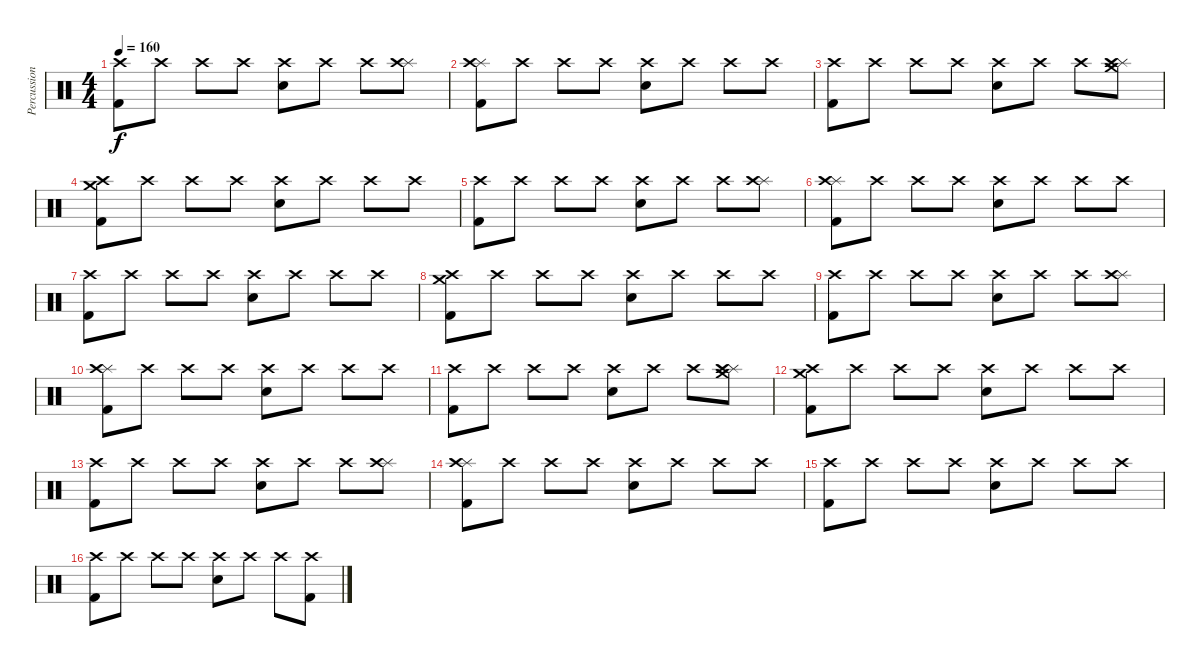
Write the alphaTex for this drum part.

\track ("Percussion" "Percussion") {instrument percussion}
\staff {score}
\articulation defaults
\ts (4 4)
\tempo 160
\clef neutral
\ks c
("Kick (hit) 2" "Crash high (hit)").8{dy f} "Crash high (hit)".8 "Crash high (hit)".8 "Crash high (hit)".8 ("Electric Snare (hit)" "Crash high (hit)").8 "Crash high (hit)".8 "Crash high (hit)".8 ("Splash (hit)" "Crash high (hit)").8 |
("Splash (hit)" "Kick (hit) 2" "Crash high (hit)").8 "Crash high (hit)".8 "Crash high (hit)".8 "Crash high (hit)".8 ("Electric Snare (hit)" "Crash high (hit)").8 "Crash high (hit)".8 "Crash high (hit)".8 "Crash high (hit)".8 |
("Kick (hit) 2" "Crash high (hit)").8 "Crash high (hit)".8 "Crash high (hit)".8 "Crash high (hit)".8 ("Electric Snare (hit)" "Crash high (hit)").8 "Crash high (hit)".8 "Crash high (hit)".8 ("Crash medium (hit)" "Splash (hit)" "Crash high (hit)").8 |
("Crash medium (hit)" "Kick (hit) 2" "Crash high (hit)").8 "Crash high (hit)".8 "Crash high (hit)".8 "Crash high (hit)".8 ("Electric Snare (hit)" "Crash high (hit)").8 "Crash high (hit)".8 "Crash high (hit)".8 "Crash high (hit)".8 |
("Kick (hit) 2" "Crash high (hit)").8 "Crash high (hit)".8 "Crash high (hit)".8 "Crash high (hit)".8 ("Electric Snare (hit)" "Crash high (hit)").8 "Crash high (hit)".8 "Crash high (hit)".8 ("Splash (hit)" "Crash high (hit)").8 |
("Splash (hit)" "Kick (hit) 2" "Crash high (hit)").8 "Crash high (hit)".8 "Crash high (hit)".8 "Crash high (hit)".8 ("Electric Snare (hit)" "Crash high (hit)").8 "Crash high (hit)".8 "Crash high (hit)".8 "Crash high (hit)".8 |
("Kick (hit) 2" "Crash high (hit)").8 "Crash high (hit)".8 "Crash high (hit)".8 "Crash high (hit)".8 ("Electric Snare (hit)" "Crash high (hit)").8 "Crash high (hit)".8 "Crash high (hit)".8 "Crash high (hit)".8 |
("Crash medium (hit)" "Kick (hit) 2" "Crash high (hit)").8 "Crash high (hit)".8 "Crash high (hit)".8 "Crash high (hit)".8 ("Electric Snare (hit)" "Crash high (hit)").8 "Crash high (hit)".8 "Crash high (hit)".8 "Crash high (hit)".8 |
("Kick (hit) 2" "Crash high (hit)").8 "Crash high (hit)".8 "Crash high (hit)".8 "Crash high (hit)".8 ("Electric Snare (hit)" "Crash high (hit)").8 "Crash high (hit)".8 "Crash high (hit)".8 ("Splash (hit)" "Crash high (hit)").8 |
("Splash (hit)" "Kick (hit) 2" "Crash high (hit)").8 "Crash high (hit)".8 "Crash high (hit)".8 "Crash high (hit)".8 ("Electric Snare (hit)" "Crash high (hit)").8 "Crash high (hit)".8 "Crash high (hit)".8 "Crash high (hit)".8 |
("Kick (hit) 2" "Crash high (hit)").8 "Crash high (hit)".8 "Crash high (hit)".8 "Crash high (hit)".8 ("Electric Snare (hit)" "Crash high (hit)").8 "Crash high (hit)".8 "Crash high (hit)".8 ("Crash medium (hit)" "Splash (hit)" "Crash high (hit)").8 |
("Crash medium (hit)" "Kick (hit) 2" "Crash high (hit)").8 "Crash high (hit)".8 "Crash high (hit)".8 "Crash high (hit)".8 ("Electric Snare (hit)" "Crash high (hit)").8 "Crash high (hit)".8 "Crash high (hit)".8 "Crash high (hit)".8 |
("Kick (hit) 2" "Crash high (hit)").8 "Crash high (hit)".8 "Crash high (hit)".8 "Crash high (hit)".8 ("Electric Snare (hit)" "Crash high (hit)").8 "Crash high (hit)".8 "Crash high (hit)".8 ("Splash (hit)" "Crash high (hit)").8 |
("Splash (hit)" "Kick (hit) 2" "Crash high (hit)").8 "Crash high (hit)".8 "Crash high (hit)".8 "Crash high (hit)".8 ("Electric Snare (hit)" "Crash high (hit)").8 "Crash high (hit)".8 "Crash high (hit)".8 "Crash high (hit)".8 |
("Kick (hit) 2" "Crash high (hit)").8 "Crash high (hit)".8 "Crash high (hit)".8 "Crash high (hit)".8 ("Electric Snare (hit)" "Crash high (hit)").8 "Crash high (hit)".8 "Crash high (hit)".8 "Crash high (hit)".8 |
("Kick (hit) 2" "Crash high (hit)").8 "Crash high (hit)".8 "Crash high (hit)".8 "Crash high (hit)".8 ("Electric Snare (hit)" "Crash high (hit)").8 "Crash high (hit)".8 "Crash high (hit)".8 ("Kick (hit) 2" "Crash high (hit)").8
